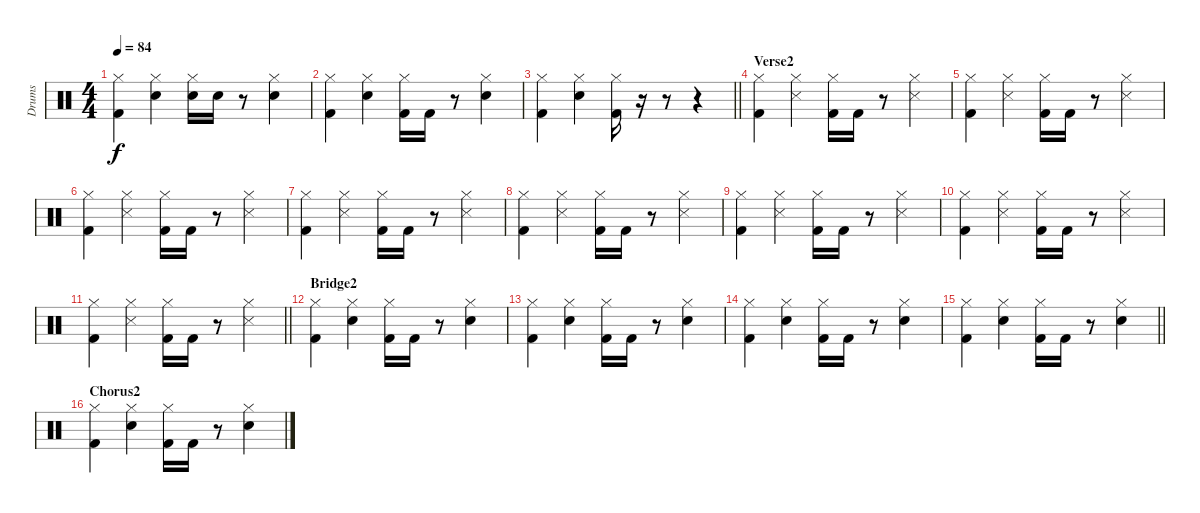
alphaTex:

\track ("Drums" "Drums") {instrument percussion}
\staff {score}
\articulation defaults
\ts (4 4)
\tempo 84
\clef neutral
\ks c
("Hi-Hat (closed)" "Kick (hit) 2").4{dy f} ("Hi-Hat (closed)" "Snare (hit) 2").4 ("Hi-Hat (closed)" "Snare (hit) 2").16 "Snare (hit) 2".16 r.8 ("Hi-Hat (closed)" "Snare (hit) 2").4 |
("Hi-Hat (closed)" "Kick (hit) 2").4 ("Hi-Hat (closed)" "Snare (hit) 2").4 ("Hi-Hat (closed)" "Kick (hit) 2").16 "Kick (hit) 2".16 r.8 ("Hi-Hat (closed)" "Snare (hit) 2").4 |
\barLineRight lightlight
("Hi-Hat (closed)" "Kick (hit) 2").4 ("Hi-Hat (closed)" "Snare (hit) 2").4 ("Hi-Hat (closed)" "Kick (hit) 2").16 r.16 r.8 r.4 |
\section ("" "Verse2")
("Hi-Hat (closed)" "Kick (hit) 2").4 ("Hi-Hat (closed)" "Snare (side stick) 3").4 ("Hi-Hat (closed)" "Kick (hit) 2").16 "Kick (hit) 2".16 r.8 ("Hi-Hat (closed)" "Snare (side stick) 3").4 |
("Hi-Hat (closed)" "Kick (hit) 2").4 ("Hi-Hat (closed)" "Snare (side stick) 3").4 ("Hi-Hat (closed)" "Kick (hit) 2").16 "Kick (hit) 2".16 r.8 ("Hi-Hat (closed)" "Snare (side stick) 3").4 |
("Hi-Hat (closed)" "Kick (hit) 2").4 ("Hi-Hat (closed)" "Snare (side stick) 3").4 ("Hi-Hat (closed)" "Kick (hit) 2").16 "Kick (hit) 2".16 r.8 ("Hi-Hat (closed)" "Snare (side stick) 3").4 |
("Hi-Hat (closed)" "Kick (hit) 2").4 ("Hi-Hat (closed)" "Snare (side stick) 3").4 ("Hi-Hat (closed)" "Kick (hit) 2").16 "Kick (hit) 2".16 r.8 ("Hi-Hat (closed)" "Snare (side stick) 3").4 |
("Hi-Hat (closed)" "Kick (hit) 2").4 ("Hi-Hat (closed)" "Snare (side stick) 3").4 ("Hi-Hat (closed)" "Kick (hit) 2").16 "Kick (hit) 2".16 r.8 ("Hi-Hat (closed)" "Snare (side stick) 3").4 |
("Hi-Hat (closed)" "Kick (hit) 2").4 ("Hi-Hat (closed)" "Snare (side stick) 3").4 ("Hi-Hat (closed)" "Kick (hit) 2").16 "Kick (hit) 2".16 r.8 ("Hi-Hat (closed)" "Snare (side stick) 3").4 |
("Hi-Hat (closed)" "Kick (hit) 2").4 ("Hi-Hat (closed)" "Snare (side stick) 3").4 ("Hi-Hat (closed)" "Kick (hit) 2").16 "Kick (hit) 2".16 r.8 ("Hi-Hat (closed)" "Snare (side stick) 3").4 |
\barLineRight lightlight
("Hi-Hat (closed)" "Kick (hit) 2").4 ("Hi-Hat (closed)" "Snare (side stick) 3").4 ("Hi-Hat (closed)" "Kick (hit) 2").16 "Kick (hit) 2".16 r.8 ("Hi-Hat (closed)" "Snare (side stick) 3").4 |
\section ("" "Bridge2")
("Hi-Hat (closed)" "Kick (hit) 2").4 ("Hi-Hat (closed)" "Snare (hit) 2").4 ("Hi-Hat (closed)" "Kick (hit) 2").16 "Kick (hit) 2".16 r.8 ("Hi-Hat (closed)" "Snare (hit) 2").4 |
("Hi-Hat (closed)" "Kick (hit) 2").4 ("Hi-Hat (closed)" "Snare (hit) 2").4 ("Hi-Hat (closed)" "Kick (hit) 2").16 "Kick (hit) 2".16 r.8 ("Hi-Hat (closed)" "Snare (hit) 2").4 |
("Hi-Hat (closed)" "Kick (hit) 2").4 ("Hi-Hat (closed)" "Snare (hit) 2").4 ("Hi-Hat (closed)" "Kick (hit) 2").16 "Kick (hit) 2".16 r.8 ("Hi-Hat (closed)" "Snare (hit) 2").4 |
\barLineRight lightlight
("Hi-Hat (closed)" "Kick (hit) 2").4 ("Hi-Hat (closed)" "Snare (hit) 2").4 ("Hi-Hat (closed)" "Kick (hit) 2").16 "Kick (hit) 2".16 r.8 ("Hi-Hat (closed)" "Snare (hit) 2").4 |
\section ("" "Chorus2")
("Hi-Hat (closed)" "Kick (hit) 2").4 ("Hi-Hat (closed)" "Snare (hit) 2").4 ("Hi-Hat (closed)" "Kick (hit) 2").16 "Kick (hit) 2".16 r.8 ("Hi-Hat (closed)" "Snare (hit) 2").4
